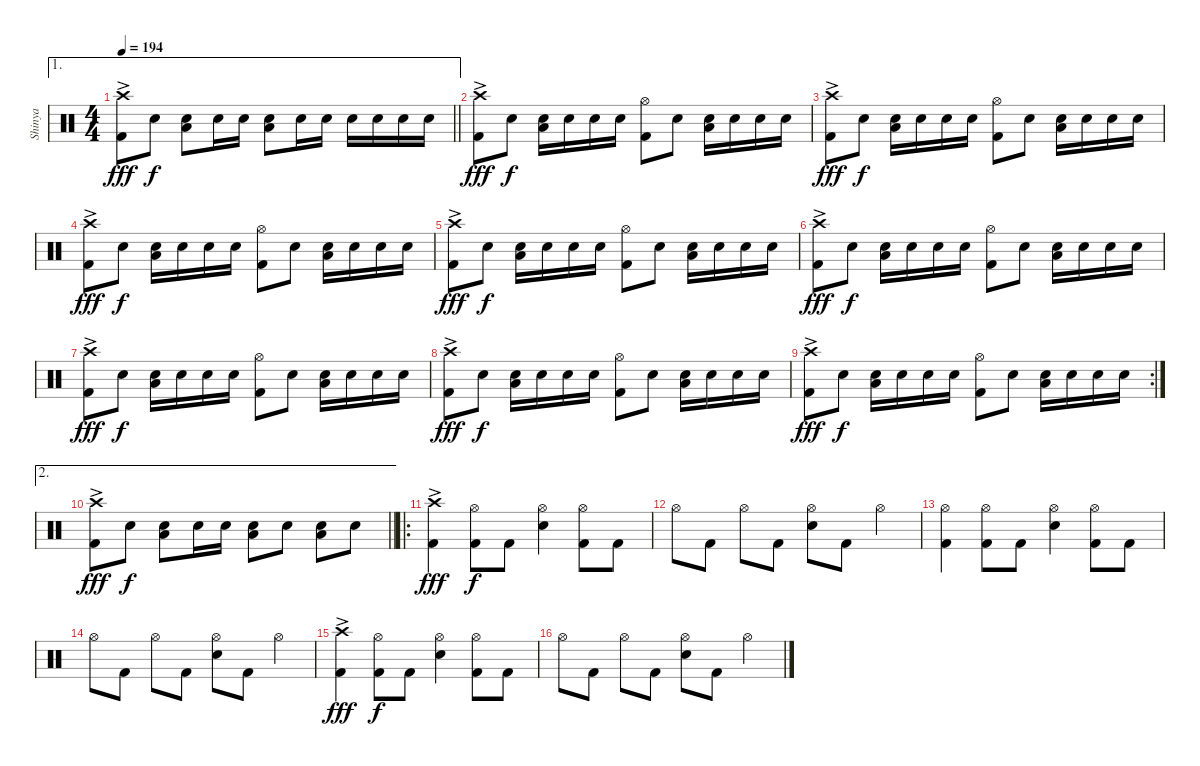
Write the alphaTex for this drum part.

\track ("Shinya" "Shinya") {instrument percussion}
\staff {score}
\articulation defaults
\ae 1
\ts (4 4)
\tempo 194
\clef neutral
\barLineRight lightlight
\ks c
("Crash high (hit)"{ac} "Kick (hit) 2").8{dy fff} "Snare (hit) 2".8{dy f} ("Snare (hit) 2" "Low Floor Tom (hit)").8 "Snare (hit) 2".16 "Snare (hit) 2".16 ("Snare (hit) 2" "Low Floor Tom (hit)").8 "Snare (hit) 2".16 "Snare (hit) 2".16 "Snare (hit) 2".16 "Snare (hit) 2".16 "Snare (hit) 2".16 "Snare (hit) 2".16 |
("Crash high (hit)"{ac} "Kick (hit) 2").8{dy fff} "Snare (hit) 2".8{dy f} ("Snare (hit) 2" "Low Floor Tom (hit)").16 "Snare (hit) 2".16 "Snare (hit) 2".16 "Snare (hit) 2".16 ("Hi-Hat (open)" "Kick (hit) 2").8 "Snare (hit) 2".8 ("Snare (hit) 2" "Low Floor Tom (hit)").16 "Snare (hit) 2".16 "Snare (hit) 2".16 "Snare (hit) 2".16 |
("Crash high (hit)"{ac} "Kick (hit) 2").8{dy fff} "Snare (hit) 2".8{dy f} ("Snare (hit) 2" "Low Floor Tom (hit)").16 "Snare (hit) 2".16 "Snare (hit) 2".16 "Snare (hit) 2".16 ("Hi-Hat (open)" "Kick (hit) 2").8 "Snare (hit) 2".8 ("Snare (hit) 2" "Low Floor Tom (hit)").16 "Snare (hit) 2".16 "Snare (hit) 2".16 "Snare (hit) 2".16 |
("Crash high (hit)"{ac} "Kick (hit) 2").8{dy fff} "Snare (hit) 2".8{dy f} ("Snare (hit) 2" "Low Floor Tom (hit)").16 "Snare (hit) 2".16 "Snare (hit) 2".16 "Snare (hit) 2".16 ("Hi-Hat (open)" "Kick (hit) 2").8 "Snare (hit) 2".8 ("Snare (hit) 2" "Low Floor Tom (hit)").16 "Snare (hit) 2".16 "Snare (hit) 2".16 "Snare (hit) 2".16 |
("Crash high (hit)"{ac} "Kick (hit) 2").8{dy fff} "Snare (hit) 2".8{dy f} ("Snare (hit) 2" "Low Floor Tom (hit)").16 "Snare (hit) 2".16 "Snare (hit) 2".16 "Snare (hit) 2".16 ("Hi-Hat (open)" "Kick (hit) 2").8 "Snare (hit) 2".8 ("Snare (hit) 2" "Low Floor Tom (hit)").16 "Snare (hit) 2".16 "Snare (hit) 2".16 "Snare (hit) 2".16 |
("Crash high (hit)"{ac} "Kick (hit) 2").8{dy fff} "Snare (hit) 2".8{dy f} ("Snare (hit) 2" "Low Floor Tom (hit)").16 "Snare (hit) 2".16 "Snare (hit) 2".16 "Snare (hit) 2".16 ("Hi-Hat (open)" "Kick (hit) 2").8 "Snare (hit) 2".8 ("Snare (hit) 2" "Low Floor Tom (hit)").16 "Snare (hit) 2".16 "Snare (hit) 2".16 "Snare (hit) 2".16 |
("Crash high (hit)"{ac} "Kick (hit) 2").8{dy fff} "Snare (hit) 2".8{dy f} ("Snare (hit) 2" "Low Floor Tom (hit)").16 "Snare (hit) 2".16 "Snare (hit) 2".16 "Snare (hit) 2".16 ("Hi-Hat (open)" "Kick (hit) 2").8 "Snare (hit) 2".8 ("Snare (hit) 2" "Low Floor Tom (hit)").16 "Snare (hit) 2".16 "Snare (hit) 2".16 "Snare (hit) 2".16 |
("Crash high (hit)"{ac} "Kick (hit) 2").8{dy fff} "Snare (hit) 2".8{dy f} ("Snare (hit) 2" "Low Floor Tom (hit)").16 "Snare (hit) 2".16 "Snare (hit) 2".16 "Snare (hit) 2".16 ("Hi-Hat (open)" "Kick (hit) 2").8 "Snare (hit) 2".8 ("Snare (hit) 2" "Low Floor Tom (hit)").16 "Snare (hit) 2".16 "Snare (hit) 2".16 "Snare (hit) 2".16 |
\rc 2
("Crash high (hit)"{ac} "Kick (hit) 2").8{dy fff} "Snare (hit) 2".8{dy f} ("Snare (hit) 2" "Low Floor Tom (hit)").16 "Snare (hit) 2".16 "Snare (hit) 2".16 "Snare (hit) 2".16 ("Hi-Hat (open)" "Kick (hit) 2").8 "Snare (hit) 2".8 ("Snare (hit) 2" "Low Floor Tom (hit)").16 "Snare (hit) 2".16 "Snare (hit) 2".16 "Snare (hit) 2".16 |
\ae 2
\barLineRight lightlight
("Crash high (hit)"{ac} "Kick (hit) 2").8{dy fff} "Snare (hit) 2".8{dy f} ("Snare (hit) 2" "Low Floor Tom (hit)").8 "Snare (hit) 2".16 "Snare (hit) 2".16 ("Snare (hit) 2" "Low Floor Tom (hit)").8 "Snare (hit) 2".8 ("Snare (hit) 2" "Low Floor Tom (hit)").8 "Snare (hit) 2".8 |
\ro
("Crash high (hit)"{ac} "Kick (hit) 2").4{dy fff} ("Hi-Hat (open)" "Kick (hit) 2").8{dy f} "Kick (hit) 2".8 ("Hi-Hat (open)" "Snare (hit) 2").4 ("Hi-Hat (open)" "Kick (hit) 2").8 "Kick (hit) 2".8 |
"Hi-Hat (open)".8 "Kick (hit) 2".8 "Hi-Hat (open)".8 "Kick (hit) 2".8 ("Hi-Hat (open)" "Snare (hit) 2").8 "Kick (hit) 2".8 "Hi-Hat (open)".4 |
("Hi-Hat (open)" "Kick (hit) 2").4 ("Hi-Hat (open)" "Kick (hit) 2").8 "Kick (hit) 2".8 ("Hi-Hat (open)" "Snare (hit) 2").4 ("Hi-Hat (open)" "Kick (hit) 2").8 "Kick (hit) 2".8 |
"Hi-Hat (open)".8 "Kick (hit) 2".8 "Hi-Hat (open)".8 "Kick (hit) 2".8 ("Hi-Hat (open)" "Snare (hit) 2").8 "Kick (hit) 2".8 "Hi-Hat (open)".4 |
("Crash high (hit)"{ac} "Kick (hit) 2").4{dy fff} ("Hi-Hat (open)" "Kick (hit) 2").8{dy f} "Kick (hit) 2".8 ("Hi-Hat (open)" "Snare (hit) 2").4 ("Hi-Hat (open)" "Kick (hit) 2").8 "Kick (hit) 2".8 |
"Hi-Hat (open)".8 "Kick (hit) 2".8 "Hi-Hat (open)".8 "Kick (hit) 2".8 ("Hi-Hat (open)" "Snare (hit) 2").8 "Kick (hit) 2".8 "Hi-Hat (open)".4
